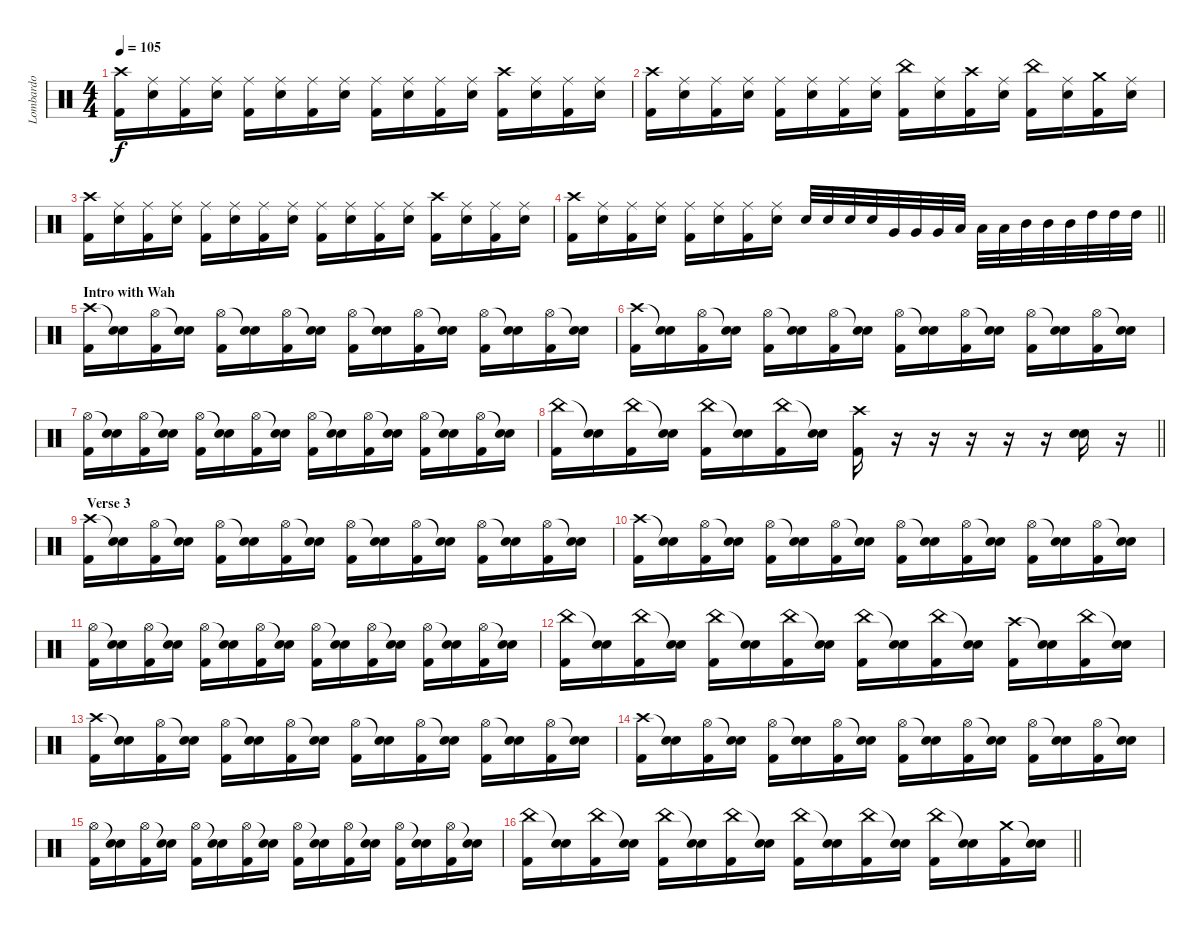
\track ("Lombardo" "Lombardo") {instrument percussion}
\staff {score}
\articulation defaults
\ts (4 4)
\tempo 105
\clef neutral
\ks c
("Crash high (hit)" "Kick (hit) 2").16{dy f} ("Ride (middle)" "Snare (hit) 2").16 ("Ride (middle)" "Kick (hit) 2").16 ("Ride (middle)" "Snare (hit) 2").16 ("Ride (middle)" "Kick (hit) 2").16 ("Ride (middle)" "Snare (hit) 2").16 ("Ride (middle)" "Kick (hit) 2").16 ("Ride (middle)" "Snare (hit) 2").16 ("Ride (middle)" "Kick (hit) 2").16 ("Ride (middle)" "Snare (hit) 2").16 ("Ride (middle)" "Kick (hit) 2").16 ("Ride (middle)" "Snare (hit) 2").16 ("Crash high (hit)" "Kick (hit) 2").16 ("Ride (middle)" "Snare (hit) 2").16 ("Ride (middle)" "Kick (hit) 2").16 ("Ride (middle)" "Snare (hit) 2").16 |
("Crash high (hit)" "Kick (hit) 2").16 ("Ride (middle)" "Snare (hit) 2").16 ("Ride (middle)" "Kick (hit) 2").16 ("Ride (middle)" "Snare (hit) 2").16 ("Ride (middle)" "Kick (hit) 2").16 ("Ride (middle)" "Snare (hit) 2").16 ("Ride (middle)" "Kick (hit) 2").16 ("Ride (middle)" "Snare (hit) 2").16 ("China (hit)" "Kick (hit) 2").16 ("Ride (middle)" "Snare (hit) 2").16 ("Crash high (hit)" "Kick (hit) 2").16 ("Ride (middle)" "Snare (hit) 2").16 ("China (hit)" "Kick (hit) 2").16 ("Ride (middle)" "Snare (hit) 2").16 ("Crash medium (hit)" "Kick (hit) 2").16 ("Ride (middle)" "Snare (hit) 2").16 |
("Crash high (hit)" "Kick (hit) 2").16 ("Ride (middle)" "Snare (hit) 2").16 ("Ride (middle)" "Kick (hit) 2").16 ("Ride (middle)" "Snare (hit) 2").16 ("Ride (middle)" "Kick (hit) 2").16 ("Ride (middle)" "Snare (hit) 2").16 ("Ride (middle)" "Kick (hit) 2").16 ("Ride (middle)" "Snare (hit) 2").16 ("Ride (middle)" "Kick (hit) 2").16 ("Ride (middle)" "Snare (hit) 2").16 ("Ride (middle)" "Kick (hit) 2").16 ("Ride (middle)" "Snare (hit) 2").16 ("Crash high (hit)" "Kick (hit) 2").16 ("Ride (middle)" "Snare (hit) 2").16 ("Ride (middle)" "Kick (hit) 2").16 ("Ride (middle)" "Snare (hit) 2").16 |
\barLineRight lightlight
("Crash high (hit)" "Kick (hit) 2").16 ("Ride (middle)" "Snare (hit) 2").16 ("Ride (middle)" "Kick (hit) 2").16 ("Ride (middle)" "Snare (hit) 2").16 ("Ride (middle)" "Kick (hit) 2").16 ("Ride (middle)" "Snare (hit) 2").16 ("Ride (middle)" "Kick (hit) 2").16 ("Ride (middle)" "Snare (hit) 2").16 "Snare (hit) 2".32 "Snare (hit) 2".32 "Snare (hit) 2".32 "Snare (hit) 2".32 "Very Low Tom (hit)".32 "Very Low Tom (hit)".32 "Very Low Tom (hit)".32 "Low Tom (hit)".32 "Low Tom (hit)".32 "Low Tom (hit)".32 "Mid Tom (hit)".32 "Mid Tom (hit)".32 "Mid Tom (hit)".32 "High Tom (hit)".32 "High Tom (hit)".32 "High Tom (hit)".32 |
\section ("" "Intro with Wah")
("Crash high (hit)" "Kick (hit) 2").16 ("Snare (hit)"{t} "Snare (hit) 2").16 ("Hi-Hat (open)" "Kick (hit) 2").16 ("Snare (hit)"{t} "Snare (hit) 2").16 ("Hi-Hat (open)" "Kick (hit) 2").16 ("Snare (hit)"{t} "Snare (hit) 2").16 ("Hi-Hat (open)" "Kick (hit) 2").16 ("Snare (hit)"{t} "Snare (hit) 2").16 ("Hi-Hat (open)" "Kick (hit) 2").16 ("Snare (hit)"{t} "Snare (hit) 2").16 ("Hi-Hat (open)" "Kick (hit) 2").16 ("Snare (hit)"{t} "Snare (hit) 2").16 ("Hi-Hat (open)" "Kick (hit) 2").16 ("Snare (hit)"{t} "Snare (hit) 2").16 ("Hi-Hat (open)" "Kick (hit) 2").16 ("Snare (hit)"{t} "Snare (hit) 2").16 |
("Crash high (hit)" "Kick (hit) 2").16 ("Snare (hit)"{t} "Snare (hit) 2").16 ("Hi-Hat (open)" "Kick (hit) 2").16 ("Snare (hit)"{t} "Snare (hit) 2").16 ("Hi-Hat (open)" "Kick (hit) 2").16 ("Snare (hit)"{t} "Snare (hit) 2").16 ("Hi-Hat (open)" "Kick (hit) 2").16 ("Snare (hit)"{t} "Snare (hit) 2").16 ("Hi-Hat (open)" "Kick (hit) 2").16 ("Snare (hit)"{t} "Snare (hit) 2").16 ("Hi-Hat (open)" "Kick (hit) 2").16 ("Snare (hit)"{t} "Snare (hit) 2").16 ("Hi-Hat (open)" "Kick (hit) 2").16 ("Snare (hit)"{t} "Snare (hit) 2").16 ("Hi-Hat (open)" "Kick (hit) 2").16 ("Snare (hit)"{t} "Snare (hit) 2").16 |
("Hi-Hat (open)" "Kick (hit) 2").16 ("Snare (hit)"{t} "Snare (hit) 2").16 ("Hi-Hat (open)" "Kick (hit) 2").16 ("Snare (hit)"{t} "Snare (hit) 2").16 ("Hi-Hat (open)" "Kick (hit) 2").16 ("Snare (hit)"{t} "Snare (hit) 2").16 ("Hi-Hat (open)" "Kick (hit) 2").16 ("Snare (hit)"{t} "Snare (hit) 2").16 ("Hi-Hat (open)" "Kick (hit) 2").16 ("Snare (hit)"{t} "Snare (hit) 2").16 ("Hi-Hat (open)" "Kick (hit) 2").16 ("Snare (hit)"{t} "Snare (hit) 2").16 ("Hi-Hat (open)" "Kick (hit) 2").16 ("Snare (hit)"{t} "Snare (hit) 2").16 ("Hi-Hat (open)" "Kick (hit) 2").16 ("Snare (hit)"{t} "Snare (hit) 2").16 |
\barLineRight lightlight
("China (hit)" "Kick (hit) 2").16 ("Snare (hit)"{t} "Snare (hit) 2").16 ("China (hit)" "Kick (hit) 2").16 ("Snare (hit)"{t} "Snare (hit) 2").16 ("China (hit)" "Kick (hit) 2").16 ("Snare (hit)"{t} "Snare (hit) 2").16 ("China (hit)" "Kick (hit) 2").16 ("Snare (hit)"{t} "Snare (hit) 2").16 ("Crash high (hit)" "Kick (hit) 2").16 r.16 r.16 r.16 r.16 r.16 ("Snare (hit) 2" "Snare (hit) 2").16 r.16 |
\section ("" " Verse 3")
("Crash high (hit)" "Kick (hit) 2").16 ("Snare (hit)"{t} "Snare (hit) 2").16 ("Hi-Hat (open)" "Kick (hit) 2").16 ("Snare (hit)"{t} "Snare (hit) 2").16 ("Hi-Hat (open)" "Kick (hit) 2").16 ("Snare (hit)"{t} "Snare (hit) 2").16 ("Hi-Hat (open)" "Kick (hit) 2").16 ("Snare (hit)"{t} "Snare (hit) 2").16 ("Hi-Hat (open)" "Kick (hit) 2").16 ("Snare (hit)"{t} "Snare (hit) 2").16 ("Hi-Hat (open)" "Kick (hit) 2").16 ("Snare (hit)"{t} "Snare (hit) 2").16 ("Hi-Hat (open)" "Kick (hit) 2").16 ("Snare (hit)"{t} "Snare (hit) 2").16 ("Hi-Hat (open)" "Kick (hit) 2").16 ("Snare (hit)"{t} "Snare (hit) 2").16 |
("Crash high (hit)" "Kick (hit) 2").16 ("Snare (hit)"{t} "Snare (hit) 2").16 ("Hi-Hat (open)" "Kick (hit) 2").16 ("Snare (hit)"{t} "Snare (hit) 2").16 ("Hi-Hat (open)" "Kick (hit) 2").16 ("Snare (hit)"{t} "Snare (hit) 2").16 ("Hi-Hat (open)" "Kick (hit) 2").16 ("Snare (hit)"{t} "Snare (hit) 2").16 ("Hi-Hat (open)" "Kick (hit) 2").16 ("Snare (hit)"{t} "Snare (hit) 2").16 ("Hi-Hat (open)" "Kick (hit) 2").16 ("Snare (hit)"{t} "Snare (hit) 2").16 ("Hi-Hat (open)" "Kick (hit) 2").16 ("Snare (hit)"{t} "Snare (hit) 2").16 ("Hi-Hat (open)" "Kick (hit) 2").16 ("Snare (hit)"{t} "Snare (hit) 2").16 |
("Hi-Hat (open)" "Kick (hit) 2").16 ("Snare (hit)"{t} "Snare (hit) 2").16 ("Hi-Hat (open)" "Kick (hit) 2").16 ("Snare (hit)"{t} "Snare (hit) 2").16 ("Hi-Hat (open)" "Kick (hit) 2").16 ("Snare (hit)"{t} "Snare (hit) 2").16 ("Hi-Hat (open)" "Kick (hit) 2").16 ("Snare (hit)"{t} "Snare (hit) 2").16 ("Hi-Hat (open)" "Kick (hit) 2").16 ("Snare (hit)"{t} "Snare (hit) 2").16 ("Hi-Hat (open)" "Kick (hit) 2").16 ("Snare (hit)"{t} "Snare (hit) 2").16 ("Hi-Hat (open)" "Kick (hit) 2").16 ("Snare (hit)"{t} "Snare (hit) 2").16 ("Hi-Hat (open)" "Kick (hit) 2").16 ("Snare (hit)"{t} "Snare (hit) 2").16 |
("China (hit)" "Kick (hit) 2").16 ("Snare (hit)"{t} "Snare (hit) 2").16 ("China (hit)" "Kick (hit) 2").16 ("Snare (hit)"{t} "Snare (hit) 2").16 ("China (hit)" "Kick (hit) 2").16 ("Snare (hit)"{t} "Snare (hit) 2").16 ("China (hit)" "Kick (hit) 2").16 ("Snare (hit)"{t} "Snare (hit) 2").16 ("China (hit)" "Kick (hit) 2").16 ("Snare (hit)"{t} "Snare (hit) 2").16 ("China (hit)" "Kick (hit) 2").16 ("Snare (hit)"{t} "Snare (hit) 2").16 ("Crash high (hit)" "Kick (hit) 2").16 ("Snare (hit)"{t} "Snare (hit) 2").16 ("China (hit)" "Kick (hit) 2").16 ("Snare (hit)"{t} "Snare (hit) 2").16 |
("Crash high (hit)" "Kick (hit) 2").16 ("Snare (hit)"{t} "Snare (hit) 2").16 ("Hi-Hat (open)" "Kick (hit) 2").16 ("Snare (hit)"{t} "Snare (hit) 2").16 ("Hi-Hat (open)" "Kick (hit) 2").16 ("Snare (hit)"{t} "Snare (hit) 2").16 ("Hi-Hat (open)" "Kick (hit) 2").16 ("Snare (hit)"{t} "Snare (hit) 2").16 ("Hi-Hat (open)" "Kick (hit) 2").16 ("Snare (hit)"{t} "Snare (hit) 2").16 ("Hi-Hat (open)" "Kick (hit) 2").16 ("Snare (hit)"{t} "Snare (hit) 2").16 ("Hi-Hat (open)" "Kick (hit) 2").16 ("Snare (hit)"{t} "Snare (hit) 2").16 ("Hi-Hat (open)" "Kick (hit) 2").16 ("Snare (hit)"{t} "Snare (hit) 2").16 |
("Crash high (hit)" "Kick (hit) 2").16 ("Snare (hit)"{t} "Snare (hit) 2").16 ("Hi-Hat (open)" "Kick (hit) 2").16 ("Snare (hit)"{t} "Snare (hit) 2").16 ("Hi-Hat (open)" "Kick (hit) 2").16 ("Snare (hit)"{t} "Snare (hit) 2").16 ("Hi-Hat (open)" "Kick (hit) 2").16 ("Snare (hit)"{t} "Snare (hit) 2").16 ("Hi-Hat (open)" "Kick (hit) 2").16 ("Snare (hit)"{t} "Snare (hit) 2").16 ("Hi-Hat (open)" "Kick (hit) 2").16 ("Snare (hit)"{t} "Snare (hit) 2").16 ("Hi-Hat (open)" "Kick (hit) 2").16 ("Snare (hit)"{t} "Snare (hit) 2").16 ("Hi-Hat (open)" "Kick (hit) 2").16 ("Snare (hit)"{t} "Snare (hit) 2").16 |
("Hi-Hat (open)" "Kick (hit) 2").16 ("Snare (hit)"{t} "Snare (hit) 2").16 ("Hi-Hat (open)" "Kick (hit) 2").16 ("Snare (hit)"{t} "Snare (hit) 2").16 ("Hi-Hat (open)" "Kick (hit) 2").16 ("Snare (hit)"{t} "Snare (hit) 2").16 ("Hi-Hat (open)" "Kick (hit) 2").16 ("Snare (hit)"{t} "Snare (hit) 2").16 ("Hi-Hat (open)" "Kick (hit) 2").16 ("Snare (hit)"{t} "Snare (hit) 2").16 ("Hi-Hat (open)" "Kick (hit) 2").16 ("Snare (hit)"{t} "Snare (hit) 2").16 ("Hi-Hat (open)" "Kick (hit) 2").16 ("Snare (hit)"{t} "Snare (hit) 2").16 ("Hi-Hat (open)" "Kick (hit) 2").16 ("Snare (hit)"{t} "Snare (hit) 2").16 |
\barLineRight lightlight
("China (hit)" "Kick (hit) 2").16 ("Snare (hit)"{t} "Snare (hit) 2").16 ("China (hit)" "Kick (hit) 2").16 ("Snare (hit)"{t} "Snare (hit) 2").16 ("China (hit)" "Kick (hit) 2").16 ("Snare (hit)"{t} "Snare (hit) 2").16 ("China (hit)" "Kick (hit) 2").16 ("Snare (hit)"{t} "Snare (hit) 2").16 ("China (hit)" "Kick (hit) 2").16 ("Snare (hit)"{t} "Snare (hit) 2").16 ("China (hit)" "Kick (hit) 2").16 ("Snare (hit)"{t} "Snare (hit) 2").16 ("China (hit)" "Kick (hit) 2").16 ("Snare (hit)"{t} "Snare (hit) 2").16 ("Crash medium (hit)" "Kick (hit) 2").16 ("Snare (hit)"{t} "Snare (hit) 2").16
